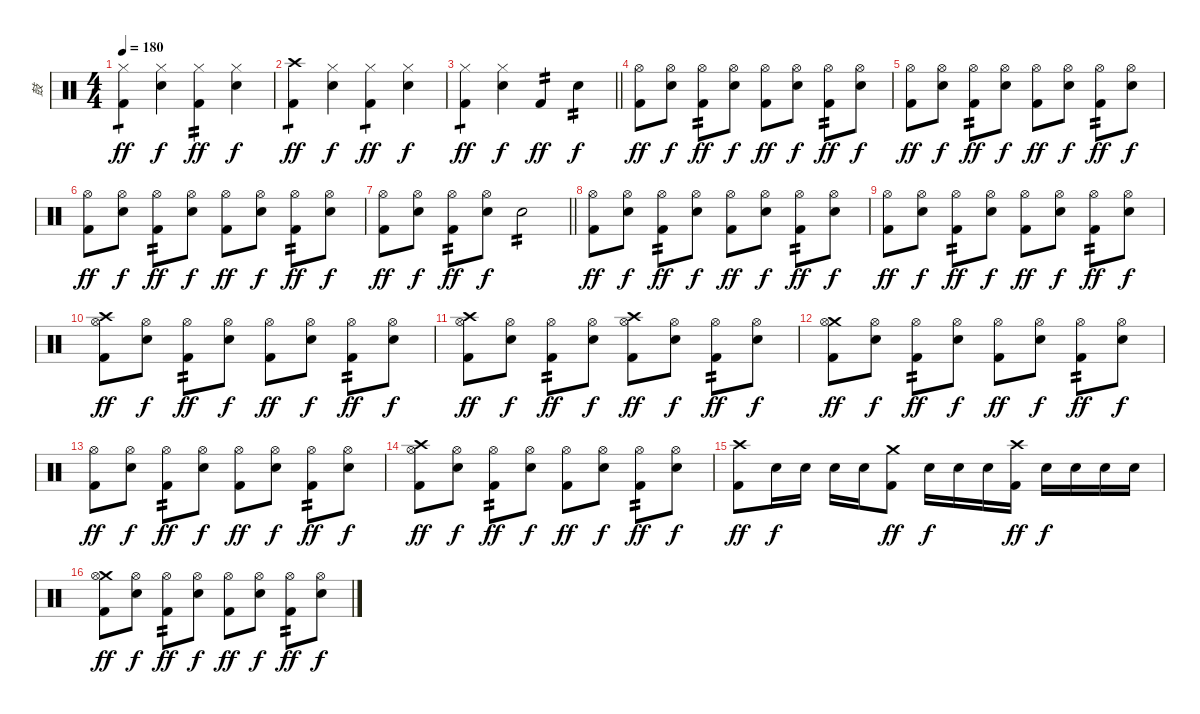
\track ("鼓" "鼓") {instrument percussion}
\staff {score}
\articulation defaults
\ts (4 4)
\tempo 180
\clef neutral
\ks c
("Hi-Hat (closed)" "Kick (hit) 2").4{tp 1 dy ff} ("Hi-Hat (closed)" "Snare (hit) 2").4{dy f} ("Hi-Hat (closed)" "Kick (hit) 2").4{tp 2 dy ff} ("Hi-Hat (closed)" "Snare (hit) 2").4{dy f} |
("Crash high (hit)" "Kick (hit) 2").4{tp 1 dy ff} ("Hi-Hat (closed)" "Snare (hit) 2").4{dy f} ("Hi-Hat (closed)" "Kick (hit) 2").4{tp 1 dy ff} ("Hi-Hat (closed)" "Snare (hit) 2").4{dy f} |
\barLineRight lightlight
("Hi-Hat (closed)" "Kick (hit) 2").4{tp 1 dy ff} ("Hi-Hat (closed)" "Snare (hit) 2").4{dy f} "Kick (hit) 2".4{tp 2 dy ff} "Snare (hit) 2".4{tp 2 dy f} |
("Hi-Hat (open)" "Kick (hit) 2").8{dy ff} ("Hi-Hat (open)" "Snare (hit) 2").8{dy f} ("Hi-Hat (open)" "Kick (hit) 2").8{tp 2 dy ff} ("Hi-Hat (open)" "Snare (hit) 2").8{dy f} ("Hi-Hat (open)" "Kick (hit) 2").8{dy ff} ("Hi-Hat (open)" "Snare (hit) 2").8{dy f} ("Hi-Hat (open)" "Kick (hit) 2").8{tp 2 dy ff} ("Hi-Hat (open)" "Snare (hit) 2").8{dy f} |
("Hi-Hat (open)" "Kick (hit) 2").8{dy ff} ("Hi-Hat (open)" "Snare (hit) 2").8{dy f} ("Hi-Hat (open)" "Kick (hit) 2").8{tp 2 dy ff} ("Hi-Hat (open)" "Snare (hit) 2").8{dy f} ("Hi-Hat (open)" "Kick (hit) 2").8{dy ff} ("Hi-Hat (open)" "Snare (hit) 2").8{dy f} ("Hi-Hat (open)" "Kick (hit) 2").8{tp 2 dy ff} ("Hi-Hat (open)" "Snare (hit) 2").8{dy f} |
("Hi-Hat (open)" "Kick (hit) 2").8{dy ff} ("Hi-Hat (open)" "Snare (hit) 2").8{dy f} ("Hi-Hat (open)" "Kick (hit) 2").8{tp 2 dy ff} ("Hi-Hat (open)" "Snare (hit) 2").8{dy f} ("Hi-Hat (open)" "Kick (hit) 2").8{dy ff} ("Hi-Hat (open)" "Snare (hit) 2").8{dy f} ("Hi-Hat (open)" "Kick (hit) 2").8{tp 2 dy ff} ("Hi-Hat (open)" "Snare (hit) 2").8{dy f} |
\barLineRight lightlight
("Hi-Hat (open)" "Kick (hit) 2").8{dy ff} ("Hi-Hat (open)" "Snare (hit) 2").8{dy f} ("Hi-Hat (open)" "Kick (hit) 2").8{tp 2 dy ff} ("Hi-Hat (open)" "Snare (hit) 2").8{dy f} "Snare (hit) 2".2{tp 2} |
("Hi-Hat (open)" "Kick (hit) 2").8{dy ff} ("Hi-Hat (open)" "Snare (hit) 2").8{dy f} ("Hi-Hat (open)" "Kick (hit) 2").8{tp 2 dy ff} ("Hi-Hat (open)" "Snare (hit) 2").8{dy f} ("Hi-Hat (open)" "Kick (hit) 2").8{dy ff} ("Hi-Hat (open)" "Snare (hit) 2").8{dy f} ("Hi-Hat (open)" "Kick (hit) 2").8{tp 2 dy ff} ("Hi-Hat (open)" "Snare (hit) 2").8{dy f} |
("Hi-Hat (open)" "Kick (hit) 2").8{dy ff} ("Hi-Hat (open)" "Snare (hit) 2").8{dy f} ("Hi-Hat (open)" "Kick (hit) 2").8{tp 2 dy ff} ("Hi-Hat (open)" "Snare (hit) 2").8{dy f} ("Hi-Hat (open)" "Kick (hit) 2").8{dy ff} ("Hi-Hat (open)" "Snare (hit) 2").8{dy f} ("Hi-Hat (open)" "Kick (hit) 2").8{tp 2 dy ff} ("Hi-Hat (open)" "Snare (hit) 2").8{dy f} |
("Crash high (hit)" "Hi-Hat (open)" "Kick (hit) 2").8{dy ff} ("Hi-Hat (open)" "Snare (hit) 2").8{dy f} ("Hi-Hat (open)" "Kick (hit) 2").8{tp 2 dy ff} ("Hi-Hat (open)" "Snare (hit) 2").8{dy f} ("Hi-Hat (open)" "Kick (hit) 2").8{dy ff} ("Hi-Hat (open)" "Snare (hit) 2").8{dy f} ("Hi-Hat (open)" "Kick (hit) 2").8{tp 2 dy ff} ("Hi-Hat (open)" "Snare (hit) 2").8{dy f} |
("Crash high (hit)" "Hi-Hat (open)" "Kick (hit) 2").8{dy ff} ("Hi-Hat (open)" "Snare (hit) 2").8{dy f} ("Hi-Hat (open)" "Kick (hit) 2").8{tp 2 dy ff} ("Hi-Hat (open)" "Snare (hit) 2").8{dy f} ("Crash high (hit)" "Hi-Hat (open)" "Kick (hit) 2").8{dy ff} ("Hi-Hat (open)" "Snare (hit) 2").8{dy f} ("Hi-Hat (open)" "Kick (hit) 2").8{tp 2 dy ff} ("Hi-Hat (open)" "Snare (hit) 2").8{dy f} |
("Crash medium (hit)" "Hi-Hat (open)" "Kick (hit) 2").8{dy ff} ("Hi-Hat (open)" "Snare (hit) 2").8{dy f} ("Hi-Hat (open)" "Kick (hit) 2").8{tp 2 dy ff} ("Hi-Hat (open)" "Snare (hit) 2").8{dy f} ("Hi-Hat (open)" "Kick (hit) 2").8{dy ff} ("Hi-Hat (open)" "Snare (hit) 2").8{dy f} ("Hi-Hat (open)" "Kick (hit) 2").8{tp 2 dy ff} ("Hi-Hat (open)" "Snare (hit) 2").8{dy f} |
("Hi-Hat (open)" "Kick (hit) 2").8{dy ff} ("Hi-Hat (open)" "Snare (hit) 2").8{dy f} ("Hi-Hat (open)" "Kick (hit) 2").8{tp 2 dy ff} ("Hi-Hat (open)" "Snare (hit) 2").8{dy f} ("Hi-Hat (open)" "Kick (hit) 2").8{dy ff} ("Hi-Hat (open)" "Snare (hit) 2").8{dy f} ("Hi-Hat (open)" "Kick (hit) 2").8{tp 2 dy ff} ("Hi-Hat (open)" "Snare (hit) 2").8{dy f} |
("Crash high (hit)" "Hi-Hat (open)" "Kick (hit) 2").8{dy ff} ("Hi-Hat (open)" "Snare (hit) 2").8{dy f} ("Hi-Hat (open)" "Kick (hit) 2").8{tp 2 dy ff} ("Hi-Hat (open)" "Snare (hit) 2").8{dy f} ("Hi-Hat (open)" "Kick (hit) 2").8{dy ff} ("Hi-Hat (open)" "Snare (hit) 2").8{dy f} ("Hi-Hat (open)" "Kick (hit) 2").8{tp 2 dy ff} ("Hi-Hat (open)" "Snare (hit) 2").8{dy f} |
("Crash high (hit)" "Kick (hit) 2").8{dy ff} "Snare (hit) 2".16{dy f} "Snare (hit) 2".16 "Snare (hit) 2".16 "Snare (hit) 2".16 ("Crash medium (hit)" "Kick (hit) 2").8{dy ff} "Snare (hit) 2".16{dy f} "Snare (hit) 2".16 "Snare (hit) 2".16 ("Crash high (hit)" "Kick (hit) 2").16{dy ff} "Snare (hit) 2".16{dy f} "Snare (hit) 2".16 "Snare (hit) 2".16 "Snare (hit) 2".16 |
("Crash medium (hit)" "Hi-Hat (open)" "Kick (hit) 2").8{dy ff} ("Hi-Hat (open)" "Snare (hit) 2").8{dy f} ("Hi-Hat (open)" "Kick (hit) 2").8{tp 2 dy ff} ("Hi-Hat (open)" "Snare (hit) 2").8{dy f} ("Hi-Hat (open)" "Kick (hit) 2").8{dy ff} ("Hi-Hat (open)" "Snare (hit) 2").8{dy f} ("Hi-Hat (open)" "Kick (hit) 2").8{tp 2 dy ff} ("Hi-Hat (open)" "Snare (hit) 2").8{dy f}
